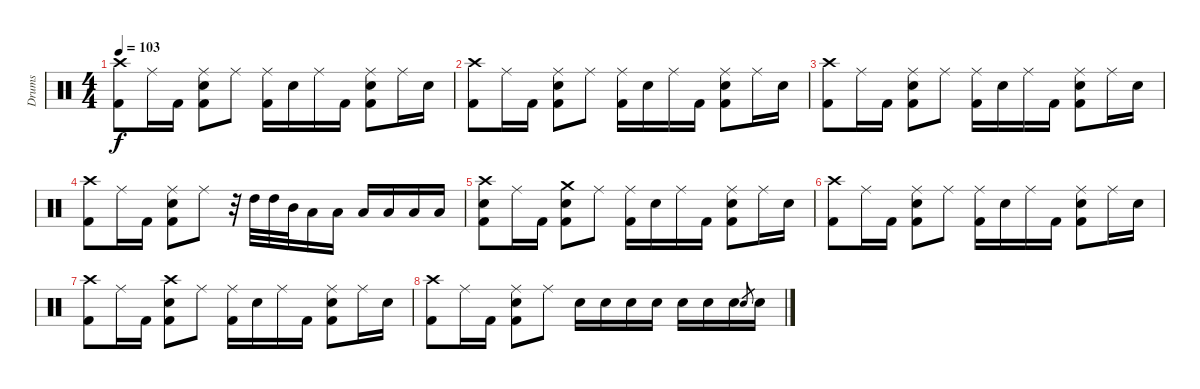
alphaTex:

\track ("Drums" "Drums") {instrument percussion}
\staff {score}
\articulation defaults
\ts (4 4)
\tempo 103
\clef neutral
\ks c
("Crash high (hit)" "Kick (hit) 2").8{dy f} "Ride (middle)".16 "Kick (hit) 2".16 ("Ride (middle)" "Electric Snare (hit)" "Kick (hit) 2").8 "Ride (middle)".8 ("Ride (middle)" "Kick (hit) 2").16 "Electric Snare (hit)".16 "Ride (middle)".16 "Kick (hit) 2".16 ("Ride (middle)" "Electric Snare (hit)" "Kick (hit) 2").8 "Ride (middle)".16 "Electric Snare (hit)".16 |
("Crash high (hit)" "Kick (hit) 2").8 "Ride (middle)".16 "Kick (hit) 2".16 ("Ride (middle)" "Electric Snare (hit)" "Kick (hit) 2").8 "Ride (middle)".8 ("Ride (middle)" "Kick (hit) 2").16 "Electric Snare (hit)".16 "Ride (middle)".16 "Kick (hit) 2".16 ("Ride (middle)" "Electric Snare (hit)" "Kick (hit) 2").8 "Ride (middle)".16 "Electric Snare (hit)".16 |
("Crash high (hit)" "Kick (hit) 2").8 "Ride (middle)".16 "Kick (hit) 2".16 ("Ride (middle)" "Electric Snare (hit)" "Kick (hit) 2").8 "Ride (middle)".8 ("Ride (middle)" "Kick (hit) 2").16 "Electric Snare (hit)".16 "Ride (middle)".16 "Kick (hit) 2".16 ("Ride (middle)" "Electric Snare (hit)" "Kick (hit) 2").8 "Ride (middle)".16 "Electric Snare (hit)".16 |
("Crash high (hit)" "Kick (hit) 2").8 "Ride (middle)".16 "Kick (hit) 2".16 ("Ride (middle)" "Electric Snare (hit)" "Kick (hit) 2").8 "Ride (middle)".8 r.32 "High Tom (hit)".32 "High Tom (hit)".32 "Mid Tom (hit)".32 "Low Tom (hit)".16 "Low Tom (hit)".16 "Low Tom (hit)".16 "Low Tom (hit)".16 "Low Tom (hit)".16 "Low Tom (hit)".16 |
("Crash high (hit)" "Electric Snare (hit)" "Kick (hit) 2").8 "Ride (middle)".16 "Kick (hit) 2".16 ("Crash medium (hit)" "Electric Snare (hit)" "Kick (hit) 2").8 "Ride (middle)".8 ("Ride (middle)" "Kick (hit) 2").16 "Electric Snare (hit)".16 "Ride (middle)".16 "Kick (hit) 2".16 ("Ride (middle)" "Electric Snare (hit)" "Kick (hit) 2").8 "Ride (middle)".16 "Electric Snare (hit)".16 |
("Crash high (hit)" "Kick (hit) 2").8 "Ride (middle)".16 "Kick (hit) 2".16 ("Ride (middle)" "Electric Snare (hit)" "Kick (hit) 2").8 "Ride (middle)".8 ("Ride (middle)" "Kick (hit) 2").16 "Electric Snare (hit)".16 "Ride (middle)".16 "Kick (hit) 2".16 ("Ride (middle)" "Electric Snare (hit)" "Kick (hit) 2").8 "Ride (middle)".16 "Electric Snare (hit)".16 |
("Crash high (hit)" "Kick (hit) 2").8 "Ride (middle)".16 "Kick (hit) 2".16 ("Crash high (hit)" "Electric Snare (hit)" "Kick (hit) 2").8 "Ride (middle)".8 ("Ride (middle)" "Kick (hit) 2").16 "Electric Snare (hit)".16 "Ride (middle)".16 "Kick (hit) 2".16 ("Ride (middle)" "Electric Snare (hit)" "Kick (hit) 2").8 "Ride (middle)".16 "Electric Snare (hit)".16 |
("Crash high (hit)" "Kick (hit) 2").8 "Ride (middle)".16 "Kick (hit) 2".16 ("Ride (middle)" "Electric Snare (hit)" "Kick (hit) 2").8 "Ride (middle)".8 "Electric Snare (hit)".16 "Electric Snare (hit)".16 "Electric Snare (hit)".16 "Electric Snare (hit)".16 "Electric Snare (hit)".16 "Electric Snare (hit)".16 "Electric Snare (hit)".16 "Electric Snare (hit)".8{gr} "Electric Snare (hit)".16
